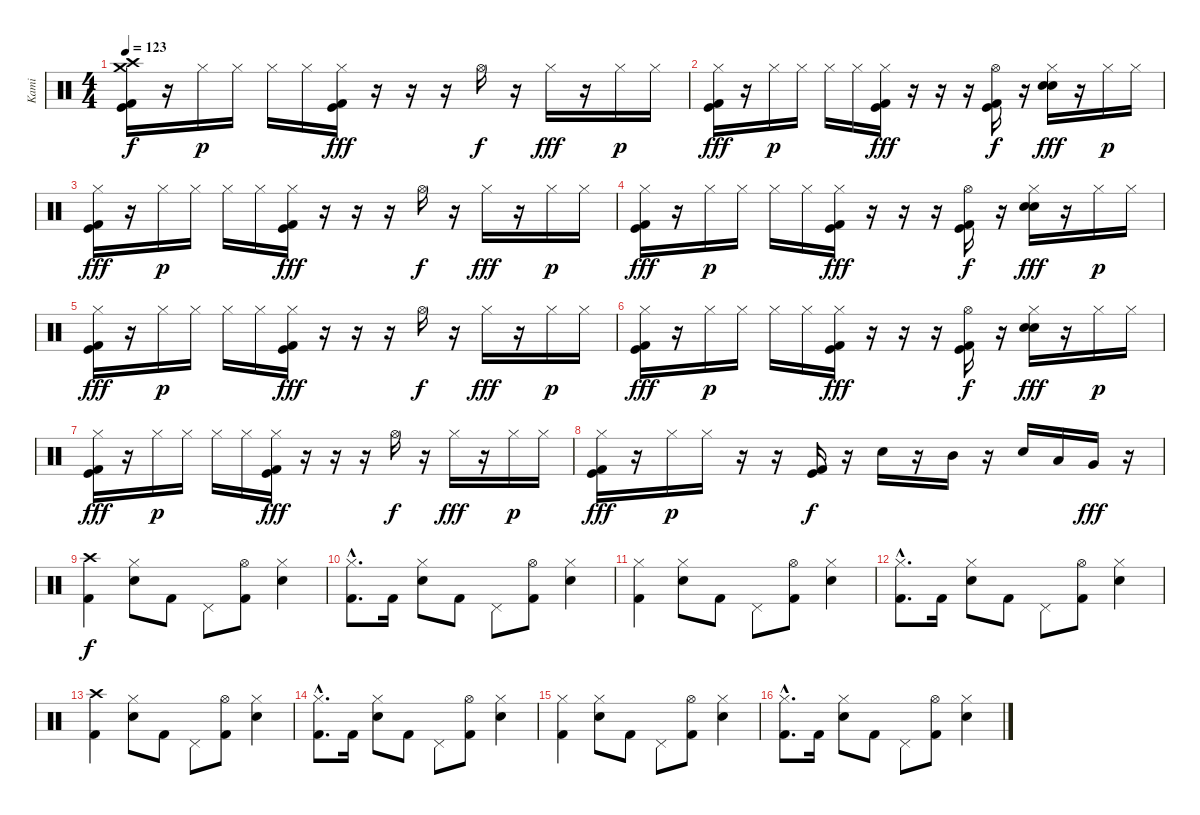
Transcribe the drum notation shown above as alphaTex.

\track ("Kami" "Kami") {instrument percussion}
\staff {score}
\articulation defaults
\ts (4 4)
\tempo 123
\clef neutral
\ks c
("Kick (hit) 2" "Kick (hit)" "Crash medium (hit)" "Crash high (hit)").16{dy f} r.16 "Hi-Hat (closed)".16{dy p} "Hi-Hat (closed)".16 "Hi-Hat (closed)".16 "Hi-Hat (closed)".16 ("Kick (hit) 2" "Kick (hit)" "Hi-Hat (closed)").16{dy fff} r.16 r.16 r.16 "Hi-Hat (open)".16{dy f} r.16 "Hi-Hat (closed)".16{dy fff} r.16 "Hi-Hat (closed)".16{dy p} "Hi-Hat (closed)".16 |
("Kick (hit) 2" "Kick (hit)" "Hi-Hat (closed)").16{dy fff} r.16 "Hi-Hat (closed)".16{dy p} "Hi-Hat (closed)".16 "Hi-Hat (closed)".16 "Hi-Hat (closed)".16 ("Kick (hit) 2" "Kick (hit)" "Hi-Hat (closed)").16{dy fff} r.16 r.16 r.16 ("Kick (hit) 2" "Kick (hit)" "Hi-Hat (open)").16{dy f} r.16 ("Snare (hit) 2" "Electric Snare (hit)" "Hi-Hat (closed)").16{dy fff} r.16 "Hi-Hat (closed)".16{dy p} "Hi-Hat (closed)".16 |
("Kick (hit) 2" "Kick (hit)" "Hi-Hat (closed)").16{dy fff} r.16 "Hi-Hat (closed)".16{dy p} "Hi-Hat (closed)".16 "Hi-Hat (closed)".16 "Hi-Hat (closed)".16 ("Kick (hit) 2" "Kick (hit)" "Hi-Hat (closed)").16{dy fff} r.16 r.16 r.16 "Hi-Hat (open)".16{dy f} r.16 "Hi-Hat (closed)".16{dy fff} r.16 "Hi-Hat (closed)".16{dy p} "Hi-Hat (closed)".16 |
("Kick (hit) 2" "Kick (hit)" "Hi-Hat (closed)").16{dy fff} r.16 "Hi-Hat (closed)".16{dy p} "Hi-Hat (closed)".16 "Hi-Hat (closed)".16 "Hi-Hat (closed)".16 ("Kick (hit) 2" "Kick (hit)" "Hi-Hat (closed)").16{dy fff} r.16 r.16 r.16 ("Kick (hit) 2" "Kick (hit)" "Hi-Hat (open)").16{dy f} r.16 ("Snare (hit) 2" "Electric Snare (hit)" "Hi-Hat (closed)").16{dy fff} r.16 "Hi-Hat (closed)".16{dy p} "Hi-Hat (closed)".16 |
("Kick (hit) 2" "Kick (hit)" "Hi-Hat (closed)").16{dy fff} r.16 "Hi-Hat (closed)".16{dy p} "Hi-Hat (closed)".16 "Hi-Hat (closed)".16 "Hi-Hat (closed)".16 ("Kick (hit) 2" "Kick (hit)" "Hi-Hat (closed)").16{dy fff} r.16 r.16 r.16 "Hi-Hat (open)".16{dy f} r.16 "Hi-Hat (closed)".16{dy fff} r.16 "Hi-Hat (closed)".16{dy p} "Hi-Hat (closed)".16 |
("Kick (hit) 2" "Kick (hit)" "Hi-Hat (closed)").16{dy fff} r.16 "Hi-Hat (closed)".16{dy p} "Hi-Hat (closed)".16 "Hi-Hat (closed)".16 "Hi-Hat (closed)".16 ("Kick (hit) 2" "Kick (hit)" "Hi-Hat (closed)").16{dy fff} r.16 r.16 r.16 ("Kick (hit) 2" "Kick (hit)" "Hi-Hat (open)").16{dy f} r.16 ("Snare (hit) 2" "Electric Snare (hit)" "Hi-Hat (closed)").16{dy fff} r.16 "Hi-Hat (closed)".16{dy p} "Hi-Hat (closed)".16 |
("Kick (hit) 2" "Kick (hit)" "Hi-Hat (closed)").16{dy fff} r.16 "Hi-Hat (closed)".16{dy p} "Hi-Hat (closed)".16 "Hi-Hat (closed)".16 "Hi-Hat (closed)".16 ("Kick (hit) 2" "Kick (hit)" "Hi-Hat (closed)").16{dy fff} r.16 r.16 r.16 "Hi-Hat (open)".16{dy f} r.16 "Hi-Hat (closed)".16{dy fff} r.16 "Hi-Hat (closed)".16{dy p} "Hi-Hat (closed)".16 |
("Kick (hit) 2" "Kick (hit)" "Hi-Hat (closed)").16{dy fff} r.16 "Hi-Hat (closed)".16{dy p} "Hi-Hat (closed)".16 r.16 r.16 ("Kick (hit)" "Kick (hit) 2").16{dy f} r.16 "Electric Snare (hit)".16 r.16 "Mid Tom (hit)".16 r.16 "Electric Snare (hit)".16 "Low Tom (hit)".16 "Very Low Tom (hit)".16{dy fff} r.16 |
("Kick (hit) 2" "Crash high (hit)").4{dy f} ("Electric Snare (hit)" "Hi-Hat (closed)").8 "Kick (hit) 2".8 "Pedal Hi-Hat (hit)".8 ("Kick (hit) 2" "Hi-Hat (open)").8 ("Electric Snare (hit)" "Hi-Hat (closed)").4 |
("Kick (hit) 2"{hac} "Hi-Hat (closed)"{hac}).8{d} "Kick (hit) 2".16 ("Electric Snare (hit)" "Hi-Hat (closed)").8 "Kick (hit) 2".8 "Pedal Hi-Hat (hit)".8 ("Kick (hit) 2" "Hi-Hat (open)").8 ("Electric Snare (hit)" "Hi-Hat (closed)").4 |
("Kick (hit) 2" "Hi-Hat (closed)").4 ("Electric Snare (hit)" "Hi-Hat (closed)").8 "Kick (hit) 2".8 "Pedal Hi-Hat (hit)".8 ("Kick (hit) 2" "Hi-Hat (open)").8 ("Electric Snare (hit)" "Hi-Hat (closed)").4 |
("Kick (hit) 2"{hac} "Hi-Hat (closed)"{hac}).8{d} "Kick (hit) 2".16 ("Electric Snare (hit)" "Hi-Hat (closed)").8 "Kick (hit) 2".8 "Pedal Hi-Hat (hit)".8 ("Kick (hit) 2" "Hi-Hat (open)").8 ("Electric Snare (hit)" "Hi-Hat (closed)").4 |
("Kick (hit) 2" "Crash high (hit)").4 ("Electric Snare (hit)" "Hi-Hat (closed)").8 "Kick (hit) 2".8 "Pedal Hi-Hat (hit)".8 ("Kick (hit) 2" "Hi-Hat (open)").8 ("Electric Snare (hit)" "Hi-Hat (closed)").4 |
("Kick (hit) 2"{hac} "Hi-Hat (closed)"{hac}).8{d} "Kick (hit) 2".16 ("Electric Snare (hit)" "Hi-Hat (closed)").8 "Kick (hit) 2".8 "Pedal Hi-Hat (hit)".8 ("Kick (hit) 2" "Hi-Hat (open)").8 ("Electric Snare (hit)" "Hi-Hat (closed)").4 |
("Kick (hit) 2" "Hi-Hat (closed)").4 ("Electric Snare (hit)" "Hi-Hat (closed)").8 "Kick (hit) 2".8 "Pedal Hi-Hat (hit)".8 ("Kick (hit) 2" "Hi-Hat (open)").8 ("Electric Snare (hit)" "Hi-Hat (closed)").4 |
("Kick (hit) 2"{hac} "Hi-Hat (closed)"{hac}).8{d} "Kick (hit) 2".16 ("Electric Snare (hit)" "Hi-Hat (closed)").8 "Kick (hit) 2".8 "Pedal Hi-Hat (hit)".8 ("Kick (hit) 2" "Hi-Hat (open)").8 ("Electric Snare (hit)" "Hi-Hat (closed)").4
